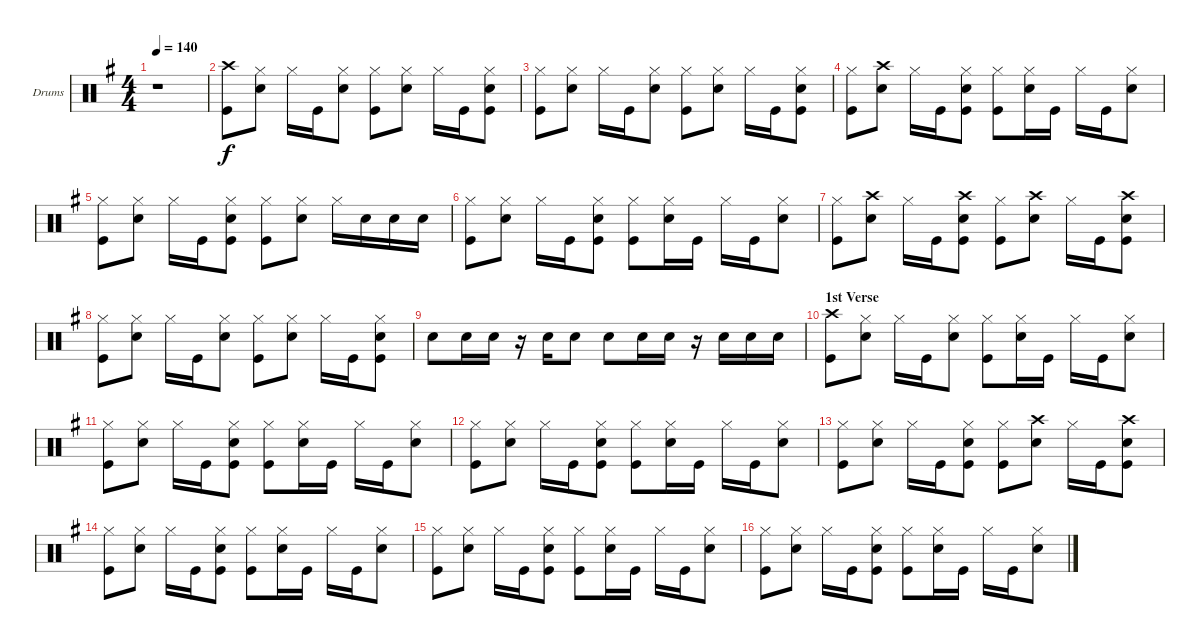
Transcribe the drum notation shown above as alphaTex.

\bracketExtendMode groupsimilarinstruments
\firstSystemTrackNameOrientation horizontal
\otherSystemsTrackNameOrientation horizontal
\track ("Drumkit" "Drums") {instrument percussion}
\staff {score}
\articulation defaults
\ts (4 4)
\tempo 140
\clef neutral
\scale
1.04288
\ks g
r.1{dy f} |
\scale
0.957125 ("Crash high (hit)" "Kick (hit)").8 ("Snare (hit) 2" "Hi-Hat (closed)").8 "Hi-Hat (closed)".16 "Kick (hit)".16 ("Snare (hit) 2" "Hi-Hat (closed)").8 ("Hi-Hat (closed)" "Kick (hit)").8 ("Snare (hit) 2" "Hi-Hat (closed)").8 "Hi-Hat (closed)".16 "Kick (hit)".16 ("Snare (hit) 2" "Hi-Hat (closed)" "Kick (hit)").8 |
\scale
1.04288 ("Hi-Hat (closed)" "Kick (hit)").8 ("Snare (hit) 2" "Hi-Hat (closed)").8 "Hi-Hat (closed)".16 "Kick (hit)".16 ("Snare (hit) 2" "Hi-Hat (closed)").8 ("Hi-Hat (closed)" "Kick (hit)").8 ("Snare (hit) 2" "Hi-Hat (closed)").8 "Hi-Hat (closed)".16 "Kick (hit)".16 ("Snare (hit) 2" "Hi-Hat (closed)" "Kick (hit)").8 |
\scale
0.957125 ("Hi-Hat (closed)" "Kick (hit)").8 ("Snare (hit) 2" "Crash high (hit)").8 "Hi-Hat (closed)".16 "Kick (hit)".16 ("Snare (hit) 2" "Hi-Hat (closed)" "Kick (hit)").8 ("Hi-Hat (closed)" "Kick (hit)").8 ("Snare (hit) 2" "Hi-Hat (closed)").16 "Kick (hit)".16 "Hi-Hat (closed)".16 "Kick (hit)".16 ("Snare (hit) 2" "Hi-Hat (closed)").8 |
\scale
1.04288 ("Hi-Hat (closed)" "Kick (hit)").8 ("Snare (hit) 2" "Hi-Hat (closed)").8 "Hi-Hat (closed)".16 "Kick (hit)".16 ("Snare (hit) 2" "Hi-Hat (closed)" "Kick (hit)").8 ("Hi-Hat (closed)" "Kick (hit)").8 ("Snare (hit) 2" "Hi-Hat (closed)").8 "Hi-Hat (closed)".16 "Snare (hit) 2".16 "Snare (hit) 2".16 "Snare (hit) 2".16 |
\scale
0.957125 ("Hi-Hat (closed)" "Kick (hit)").8 ("Hi-Hat (closed)" "Snare (hit) 2").8 "Hi-Hat (closed)".16 "Kick (hit)".16 ("Snare (hit) 2" "Hi-Hat (closed)" "Kick (hit)").8 ("Hi-Hat (closed)" "Kick (hit)").8 ("Snare (hit) 2" "Hi-Hat (closed)").16 "Kick (hit)".16 "Hi-Hat (closed)".16 "Kick (hit)".16 ("Snare (hit) 2" "Hi-Hat (closed)").8 |
\scale
1.04288 ("Kick (hit)" "Hi-Hat (closed)").8 ("Crash high (hit)" "Snare (hit) 2").8 "Hi-Hat (closed)".16 "Kick (hit)".16 ("Kick (hit)" "Crash high (hit)" "Snare (hit) 2").8 ("Kick (hit)" "Hi-Hat (closed)").8 ("Snare (hit) 2" "Crash high (hit)").8 "Hi-Hat (closed)".16 "Kick (hit)".16 ("Crash high (hit)" "Snare (hit) 2" "Kick (hit)").8 |
\scale
0.957125 ("Hi-Hat (closed)" "Kick (hit)").8 ("Snare (hit) 2" "Hi-Hat (closed)").8 "Hi-Hat (closed)".16 "Kick (hit)".16 ("Snare (hit) 2" "Hi-Hat (closed)").8 ("Hi-Hat (closed)" "Kick (hit)").8 ("Snare (hit) 2" "Hi-Hat (closed)").8 "Hi-Hat (closed)".16 "Kick (hit)".16 ("Snare (hit) 2" "Hi-Hat (closed)" "Kick (hit)").8 |
\scale
1.04288 "Snare (hit) 2".8 "Snare (hit) 2".16 "Snare (hit) 2".16 r.16 "Snare (hit) 2".16 "Snare (hit) 2".8 "Snare (hit) 2".8 "Snare (hit) 2".16 "Snare (hit) 2".16 r.16 "Snare (hit) 2".16 "Snare (hit) 2".16 "Snare (hit) 2".16 |
\section ("" "1st Verse")
\scale
0.957125 ("Kick (hit)" "Crash high (hit)").8 ("Snare (hit) 2" "Hi-Hat (closed)").8 "Hi-Hat (closed)".16 "Kick (hit)".16 ("Snare (hit) 2" "Hi-Hat (closed)").8 ("Kick (hit)" "Hi-Hat (closed)").8 ("Snare (hit) 2" "Hi-Hat (closed)").16 "Kick (hit)".16 "Hi-Hat (closed)".16 "Kick (hit)".16 ("Snare (hit) 2" "Hi-Hat (closed)").8 |
\scale
1.04288 ("Hi-Hat (closed)" "Kick (hit)").8 ("Snare (hit) 2" "Hi-Hat (closed)").8 "Hi-Hat (closed)".16 "Kick (hit)".16 ("Kick (hit)" "Snare (hit) 2" "Hi-Hat (closed)").8 ("Kick (hit)" "Hi-Hat (closed)").8 ("Snare (hit) 2" "Hi-Hat (closed)").16 "Kick (hit)".16 "Hi-Hat (closed)".16 "Kick (hit)".16 ("Snare (hit) 2" "Hi-Hat (closed)").8 |
\scale
0.957125 ("Hi-Hat (closed)" "Kick (hit)").8 ("Snare (hit) 2" "Hi-Hat (closed)").8 "Hi-Hat (closed)".16 "Kick (hit)".16 ("Snare (hit) 2" "Hi-Hat (closed)" "Kick (hit)").8 ("Hi-Hat (closed)" "Kick (hit)").8 ("Snare (hit) 2" "Hi-Hat (closed)").16 "Kick (hit)".16 "Hi-Hat (closed)".16 "Kick (hit)".16 ("Snare (hit) 2" "Hi-Hat (closed)").8 |
\scale
1.04288 ("Hi-Hat (closed)" "Kick (hit)").8 ("Snare (hit) 2" "Hi-Hat (closed)").8 "Hi-Hat (closed)".16 "Kick (hit)".16 ("Kick (hit)" "Snare (hit) 2" "Hi-Hat (closed)").8 ("Hi-Hat (closed)" "Kick (hit)").8 ("Crash high (hit)" "Snare (hit) 2").8 "Hi-Hat (closed)".16 "Kick (hit)".16 ("Kick (hit)" "Crash high (hit)" "Snare (hit) 2").8 |
\scale
0.957125 ("Hi-Hat (closed)" "Kick (hit)").8 ("Snare (hit) 2" "Hi-Hat (closed)").8 "Hi-Hat (closed)".16 "Kick (hit)".16 ("Kick (hit)" "Snare (hit) 2" "Hi-Hat (closed)").8 ("Kick (hit)" "Hi-Hat (closed)").8 ("Snare (hit) 2" "Hi-Hat (closed)").16 "Kick (hit)".16 "Hi-Hat (closed)".16 "Kick (hit)".16 ("Snare (hit) 2" "Hi-Hat (closed)").8 |
\scale
1.04288 ("Hi-Hat (closed)" "Kick (hit)").8 ("Snare (hit) 2" "Hi-Hat (closed)").8 "Hi-Hat (closed)".16 "Kick (hit)".16 ("Kick (hit)" "Snare (hit) 2" "Hi-Hat (closed)").8 ("Kick (hit)" "Hi-Hat (closed)").8 ("Snare (hit) 2" "Hi-Hat (closed)").16 "Kick (hit)".16 "Hi-Hat (closed)".16 "Kick (hit)".16 ("Snare (hit) 2" "Hi-Hat (closed)").8 |
\scale
0.957125 ("Hi-Hat (closed)" "Kick (hit)").8 ("Snare (hit) 2" "Hi-Hat (closed)").8 "Hi-Hat (closed)".16 "Kick (hit)".16 ("Kick (hit)" "Snare (hit) 2" "Hi-Hat (closed)").8 ("Kick (hit)" "Hi-Hat (closed)").8 ("Snare (hit) 2" "Hi-Hat (closed)").16 "Kick (hit)".16 "Hi-Hat (closed)".16 "Kick (hit)".16 ("Snare (hit) 2" "Hi-Hat (closed)").8
